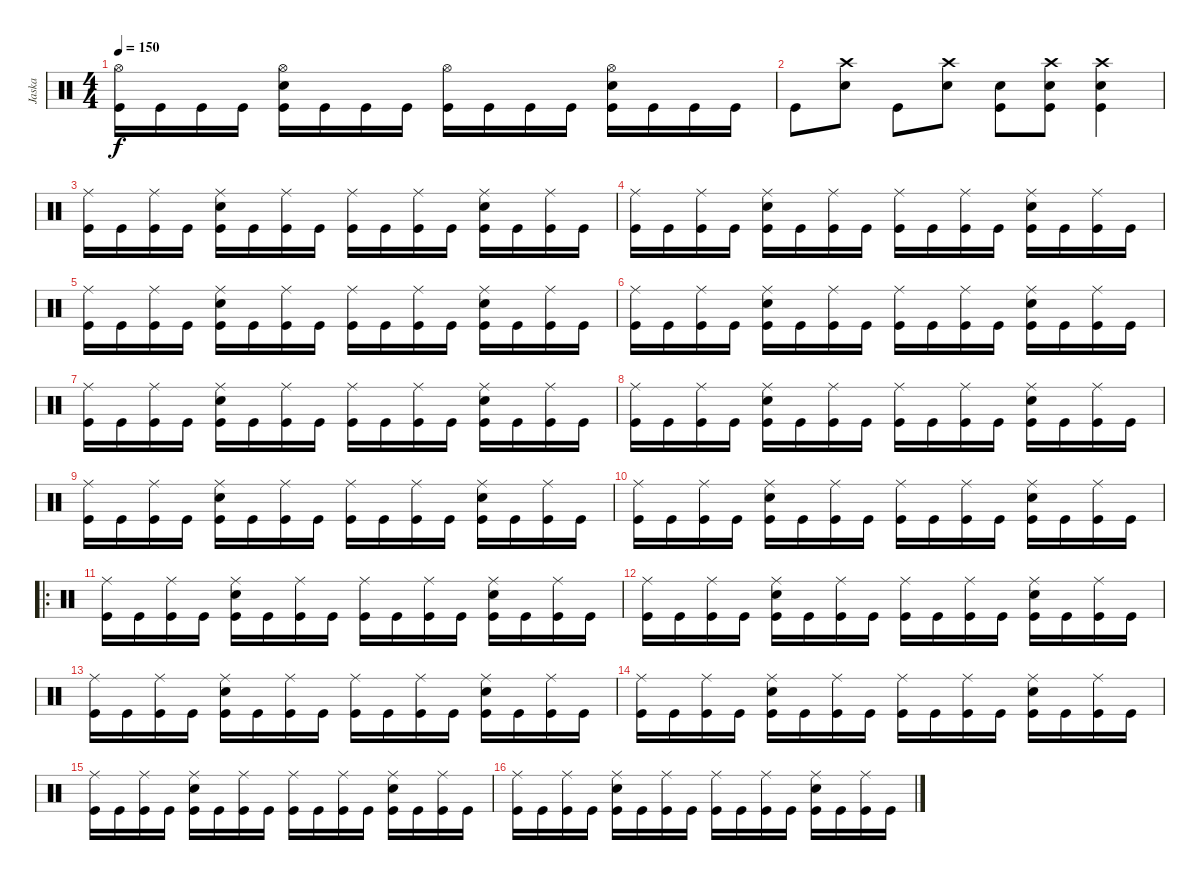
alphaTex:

\track ("Jaska" "Jaska") {instrument percussion}
\staff {score}
\articulation defaults
\ts (4 4)
\tempo 150
\clef neutral
\ks c
("Hi-Hat (open)" "Kick (hit)").16{dy f} "Kick (hit)".16 "Kick (hit)".16 "Kick (hit)".16 ("Hi-Hat (open)" "Snare (hit) 2" "Kick (hit)").16 "Kick (hit)".16 "Kick (hit)".16 "Kick (hit)".16 ("Hi-Hat (open)" "Kick (hit)").16 "Kick (hit)".16 "Kick (hit)".16 "Kick (hit)".16 ("Hi-Hat (open)" "Snare (hit) 2" "Kick (hit)").16 "Kick (hit)".16 "Kick (hit)".16 "Kick (hit)".16 |
"Kick (hit)".8 ("Crash high (hit)" "Snare (hit) 2").8 "Kick (hit)".8 ("Crash high (hit)" "Snare (hit) 2").8 ("Snare (hit)" "Kick (hit)").8 ("Crash high (hit)" "Snare (hit) 2" "Kick (hit)").8 ("Crash high (hit)" "Snare (hit) 2" "Kick (hit)").4 |
("Ride (middle)" "Kick (hit)").16 "Kick (hit)".16 ("Ride (middle)" "Kick (hit)").16 "Kick (hit)".16 ("Ride (middle)" "Snare (hit) 2" "Kick (hit)").16 "Kick (hit)".16 ("Ride (middle)" "Kick (hit)").16 "Kick (hit)".16 ("Ride (middle)" "Kick (hit)").16 "Kick (hit)".16 ("Ride (middle)" "Kick (hit)").16 "Kick (hit)".16 ("Ride (middle)" "Snare (hit) 2" "Kick (hit)").16 "Kick (hit)".16 ("Ride (middle)" "Kick (hit)").16 "Kick (hit)".16 |
("Ride (middle)" "Kick (hit)").16 "Kick (hit)".16 ("Ride (middle)" "Kick (hit)").16 "Kick (hit)".16 ("Ride (middle)" "Snare (hit) 2" "Kick (hit)").16 "Kick (hit)".16 ("Ride (middle)" "Kick (hit)").16 "Kick (hit)".16 ("Ride (middle)" "Kick (hit)").16 "Kick (hit)".16 ("Ride (middle)" "Kick (hit)").16 "Kick (hit)".16 ("Ride (middle)" "Snare (hit) 2" "Kick (hit)").16 "Kick (hit)".16 ("Ride (middle)" "Kick (hit)").16 "Kick (hit)".16 |
("Ride (middle)" "Kick (hit)").16 "Kick (hit)".16 ("Ride (middle)" "Kick (hit)").16 "Kick (hit)".16 ("Ride (middle)" "Snare (hit) 2" "Kick (hit)").16 "Kick (hit)".16 ("Ride (middle)" "Kick (hit)").16 "Kick (hit)".16 ("Ride (middle)" "Kick (hit)").16 "Kick (hit)".16 ("Ride (middle)" "Kick (hit)").16 "Kick (hit)".16 ("Ride (middle)" "Snare (hit) 2" "Kick (hit)").16 "Kick (hit)".16 ("Ride (middle)" "Kick (hit)").16 "Kick (hit)".16 |
("Ride (middle)" "Kick (hit)").16 "Kick (hit)".16 ("Ride (middle)" "Kick (hit)").16 "Kick (hit)".16 ("Ride (middle)" "Snare (hit) 2" "Kick (hit)").16 "Kick (hit)".16 ("Ride (middle)" "Kick (hit)").16 "Kick (hit)".16 ("Ride (middle)" "Kick (hit)").16 "Kick (hit)".16 ("Ride (middle)" "Kick (hit)").16 "Kick (hit)".16 ("Ride (middle)" "Snare (hit) 2" "Kick (hit)").16 "Kick (hit)".16 ("Ride (middle)" "Kick (hit)").16 "Kick (hit)".16 |
("Ride (middle)" "Kick (hit)").16 "Kick (hit)".16 ("Ride (middle)" "Kick (hit)").16 "Kick (hit)".16 ("Ride (middle)" "Snare (hit) 2" "Kick (hit)").16 "Kick (hit)".16 ("Ride (middle)" "Kick (hit)").16 "Kick (hit)".16 ("Ride (middle)" "Kick (hit)").16 "Kick (hit)".16 ("Ride (middle)" "Kick (hit)").16 "Kick (hit)".16 ("Ride (middle)" "Snare (hit) 2" "Kick (hit)").16 "Kick (hit)".16 ("Ride (middle)" "Kick (hit)").16 "Kick (hit)".16 |
("Ride (middle)" "Kick (hit)").16 "Kick (hit)".16 ("Ride (middle)" "Kick (hit)").16 "Kick (hit)".16 ("Ride (middle)" "Snare (hit) 2" "Kick (hit)").16 "Kick (hit)".16 ("Ride (middle)" "Kick (hit)").16 "Kick (hit)".16 ("Ride (middle)" "Kick (hit)").16 "Kick (hit)".16 ("Ride (middle)" "Kick (hit)").16 "Kick (hit)".16 ("Ride (middle)" "Snare (hit) 2" "Kick (hit)").16 "Kick (hit)".16 ("Ride (middle)" "Kick (hit)").16 "Kick (hit)".16 |
("Ride (middle)" "Kick (hit)").16 "Kick (hit)".16 ("Ride (middle)" "Kick (hit)").16 "Kick (hit)".16 ("Ride (middle)" "Snare (hit) 2" "Kick (hit)").16 "Kick (hit)".16 ("Ride (middle)" "Kick (hit)").16 "Kick (hit)".16 ("Ride (middle)" "Kick (hit)").16 "Kick (hit)".16 ("Ride (middle)" "Kick (hit)").16 "Kick (hit)".16 ("Ride (middle)" "Snare (hit) 2" "Kick (hit)").16 "Kick (hit)".16 ("Ride (middle)" "Kick (hit)").16 "Kick (hit)".16 |
("Ride (middle)" "Kick (hit)").16 "Kick (hit)".16 ("Ride (middle)" "Kick (hit)").16 "Kick (hit)".16 ("Ride (middle)" "Snare (hit) 2" "Kick (hit)").16 "Kick (hit)".16 ("Ride (middle)" "Kick (hit)").16 "Kick (hit)".16 ("Ride (middle)" "Kick (hit)").16 "Kick (hit)".16 ("Ride (middle)" "Kick (hit)").16 "Kick (hit)".16 ("Ride (middle)" "Snare (hit) 2" "Kick (hit)").16 "Kick (hit)".16 ("Ride (middle)" "Kick (hit)").16 "Kick (hit)".16 |
\ro
("Ride (middle)" "Kick (hit)").16 "Kick (hit)".16 ("Ride (middle)" "Kick (hit)").16 "Kick (hit)".16 ("Ride (middle)" "Snare (hit) 2" "Kick (hit)").16 "Kick (hit)".16 ("Ride (middle)" "Kick (hit)").16 "Kick (hit)".16 ("Ride (middle)" "Kick (hit)").16 "Kick (hit)".16 ("Ride (middle)" "Kick (hit)").16 "Kick (hit)".16 ("Ride (middle)" "Snare (hit) 2" "Kick (hit)").16 "Kick (hit)".16 ("Ride (middle)" "Kick (hit)").16 "Kick (hit)".16 |
("Ride (middle)" "Kick (hit)").16 "Kick (hit)".16 ("Ride (middle)" "Kick (hit)").16 "Kick (hit)".16 ("Ride (middle)" "Snare (hit) 2" "Kick (hit)").16 "Kick (hit)".16 ("Ride (middle)" "Kick (hit)").16 "Kick (hit)".16 ("Ride (middle)" "Kick (hit)").16 "Kick (hit)".16 ("Ride (middle)" "Kick (hit)").16 "Kick (hit)".16 ("Ride (middle)" "Snare (hit) 2" "Kick (hit)").16 "Kick (hit)".16 ("Ride (middle)" "Kick (hit)").16 "Kick (hit)".16 |
("Ride (middle)" "Kick (hit)").16 "Kick (hit)".16 ("Ride (middle)" "Kick (hit)").16 "Kick (hit)".16 ("Ride (middle)" "Snare (hit) 2" "Kick (hit)").16 "Kick (hit)".16 ("Ride (middle)" "Kick (hit)").16 "Kick (hit)".16 ("Ride (middle)" "Kick (hit)").16 "Kick (hit)".16 ("Ride (middle)" "Kick (hit)").16 "Kick (hit)".16 ("Ride (middle)" "Snare (hit) 2" "Kick (hit)").16 "Kick (hit)".16 ("Ride (middle)" "Kick (hit)").16 "Kick (hit)".16 |
("Ride (middle)" "Kick (hit)").16 "Kick (hit)".16 ("Ride (middle)" "Kick (hit)").16 "Kick (hit)".16 ("Ride (middle)" "Snare (hit) 2" "Kick (hit)").16 "Kick (hit)".16 ("Ride (middle)" "Kick (hit)").16 "Kick (hit)".16 ("Ride (middle)" "Kick (hit)").16 "Kick (hit)".16 ("Ride (middle)" "Kick (hit)").16 "Kick (hit)".16 ("Ride (middle)" "Snare (hit) 2" "Kick (hit)").16 "Kick (hit)".16 ("Ride (middle)" "Kick (hit)").16 "Kick (hit)".16 |
("Ride (middle)" "Kick (hit)").16 "Kick (hit)".16 ("Ride (middle)" "Kick (hit)").16 "Kick (hit)".16 ("Ride (middle)" "Snare (hit) 2" "Kick (hit)").16 "Kick (hit)".16 ("Ride (middle)" "Kick (hit)").16 "Kick (hit)".16 ("Ride (middle)" "Kick (hit)").16 "Kick (hit)".16 ("Ride (middle)" "Kick (hit)").16 "Kick (hit)".16 ("Ride (middle)" "Snare (hit) 2" "Kick (hit)").16 "Kick (hit)".16 ("Ride (middle)" "Kick (hit)").16 "Kick (hit)".16 |
("Ride (middle)" "Kick (hit)").16 "Kick (hit)".16 ("Ride (middle)" "Kick (hit)").16 "Kick (hit)".16 ("Ride (middle)" "Snare (hit) 2" "Kick (hit)").16 "Kick (hit)".16 ("Ride (middle)" "Kick (hit)").16 "Kick (hit)".16 ("Ride (middle)" "Kick (hit)").16 "Kick (hit)".16 ("Ride (middle)" "Kick (hit)").16 "Kick (hit)".16 ("Ride (middle)" "Snare (hit) 2" "Kick (hit)").16 "Kick (hit)".16 ("Ride (middle)" "Kick (hit)").16 "Kick (hit)".16
